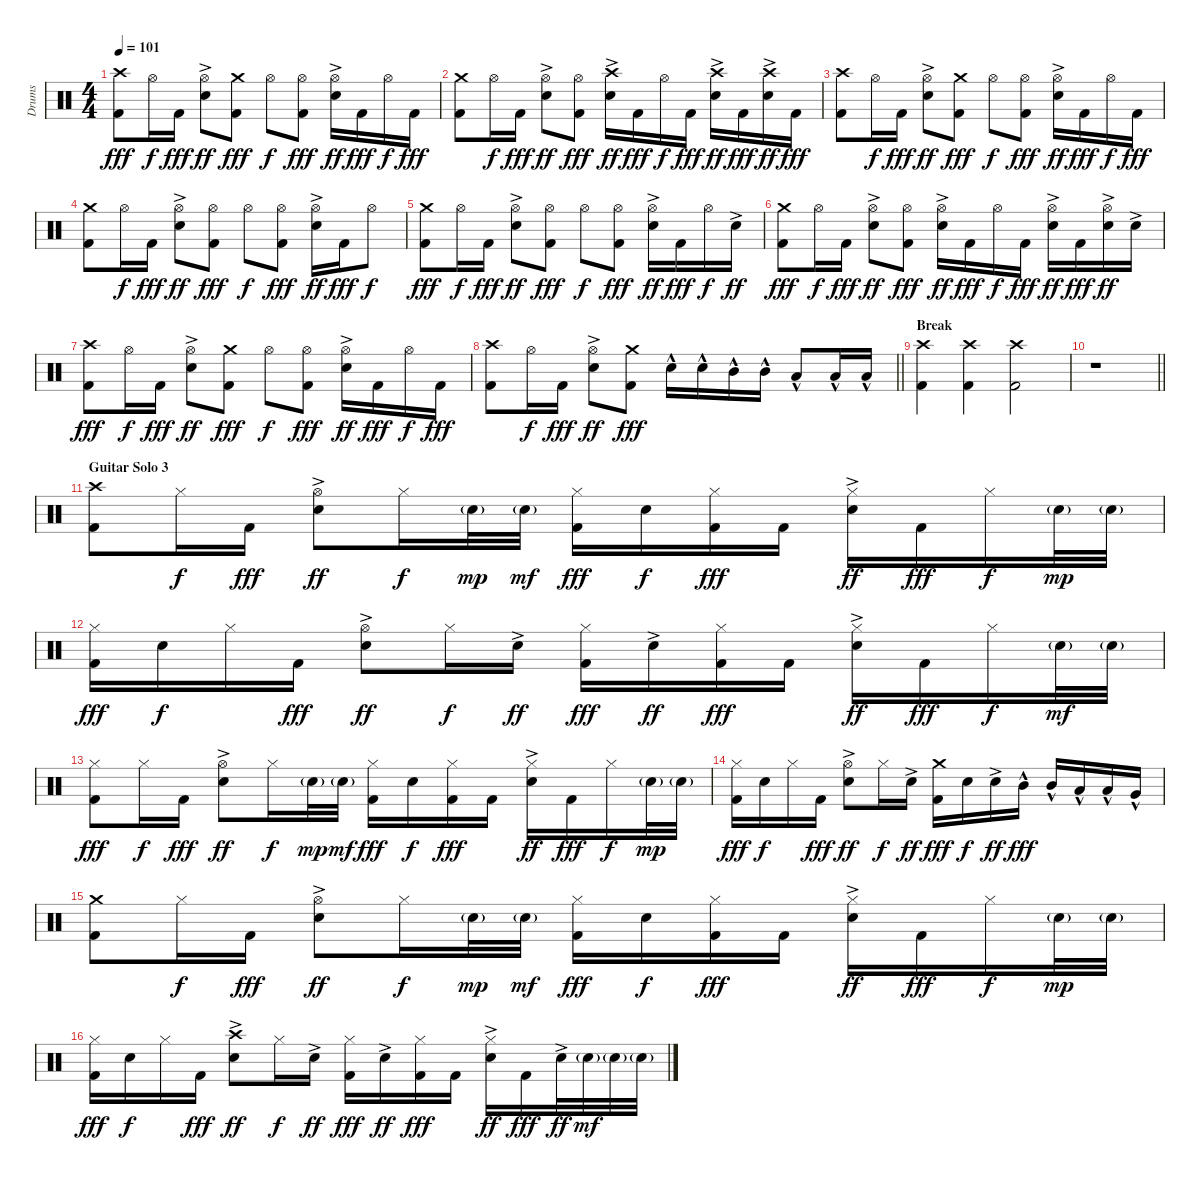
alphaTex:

\track ("Drums" "Drums") {instrument percussion}
\staff {score}
\articulation defaults
\ts (4 4)
\tempo 101
\clef neutral
\ks c
("Crash high (hit)" "Kick (hit) 2").8{dy fff} "Hi-Hat (open)".16{dy f} "Kick (hit) 2".16{dy fff} ("Hi-Hat (open)" "Snare (hit) 2"{ac}).8{dy ff} ("Crash medium (hit)" "Kick (hit) 2").8{dy fff} "Hi-Hat (open)".8{dy f} ("Hi-Hat (open)" "Kick (hit) 2").8{dy fff} ("Hi-Hat (open)" "Snare (hit) 2"{ac}).16{dy ff} "Kick (hit) 2".16{dy fff} "Hi-Hat (open)".16{dy f} "Kick (hit) 2".16{dy fff} |
("Crash medium (hit)" "Kick (hit) 2").8 "Hi-Hat (open)".16{dy f} "Kick (hit) 2".16{dy fff} ("Hi-Hat (open)" "Snare (hit) 2"{ac}).8{dy ff} ("Hi-Hat (open)" "Kick (hit) 2").8{dy fff} ("Crash high (hit)" "Snare (hit) 2"{ac}).16{dy ff} "Kick (hit) 2".16{dy fff} "Hi-Hat (open)".16{dy f} "Kick (hit) 2".16{dy fff} ("Crash high (hit)" "Snare (hit) 2"{ac}).16{dy ff} "Kick (hit) 2".16{dy fff} ("Crash high (hit)" "Snare (hit) 2"{ac}).16{dy ff} "Kick (hit) 2".16{dy fff} |
("Crash high (hit)" "Kick (hit) 2").8 "Hi-Hat (open)".16{dy f} "Kick (hit) 2".16{dy fff} ("Hi-Hat (open)" "Snare (hit) 2"{ac}).8{dy ff} ("Crash medium (hit)" "Kick (hit) 2").8{dy fff} "Hi-Hat (open)".8{dy f} ("Hi-Hat (open)" "Kick (hit) 2").8{dy fff} ("Hi-Hat (open)" "Snare (hit) 2"{ac}).16{dy ff} "Kick (hit) 2".16{dy fff} "Hi-Hat (open)".16{dy f} "Kick (hit) 2".16{dy fff} |
("Crash medium (hit)" "Kick (hit) 2").8 "Hi-Hat (open)".16{dy f} "Kick (hit) 2".16{dy fff} ("Hi-Hat (open)" "Snare (hit) 2"{ac}).8{dy ff} ("Hi-Hat (open)" "Kick (hit) 2").8{dy fff} "Hi-Hat (open)".8{dy f} ("Hi-Hat (open)" "Kick (hit) 2").8{dy fff} ("Hi-Hat (open)" "Snare (hit) 2"{ac}).16{dy ff} "Kick (hit) 2".16{dy fff} "Hi-Hat (open)".8{dy f} |
("Crash medium (hit)" "Kick (hit) 2").8{dy fff} "Hi-Hat (open)".16{dy f} "Kick (hit) 2".16{dy fff} ("Hi-Hat (open)" "Snare (hit) 2"{ac}).8{dy ff} ("Hi-Hat (open)" "Kick (hit) 2").8{dy fff} "Hi-Hat (open)".8{dy f} ("Hi-Hat (open)" "Kick (hit) 2").8{dy fff} ("Hi-Hat (open)" "Snare (hit) 2"{ac}).16{dy ff} "Kick (hit) 2".16{dy fff} "Hi-Hat (open)".16{dy f} "Snare (hit) 2"{ac}.16{dy ff} |
("Crash medium (hit)" "Kick (hit) 2").8{dy fff} "Hi-Hat (open)".16{dy f} "Kick (hit) 2".16{dy fff} ("Hi-Hat (open)" "Snare (hit) 2"{ac}).8{dy ff} ("Hi-Hat (open)" "Kick (hit) 2").8{dy fff} ("Hi-Hat (open)" "Snare (hit) 2"{ac}).16{dy ff} "Kick (hit) 2".16{dy fff} "Hi-Hat (open)".16{dy f} "Kick (hit) 2".16{dy fff} ("Hi-Hat (open)" "Snare (hit) 2"{ac}).16{dy ff} "Kick (hit) 2".16{dy fff} ("Hi-Hat (open)" "Snare (hit) 2"{ac}).16{dy ff} "Snare (hit) 2"{ac}.16 |
("Crash high (hit)" "Kick (hit) 2").8{dy fff} "Hi-Hat (open)".16{dy f} "Kick (hit) 2".16{dy fff} ("Hi-Hat (open)" "Snare (hit) 2"{ac}).8{dy ff} ("Crash medium (hit)" "Kick (hit) 2").8{dy fff} "Hi-Hat (open)".8{dy f} ("Hi-Hat (open)" "Kick (hit) 2").8{dy fff} ("Hi-Hat (open)" "Snare (hit) 2"{ac}).16{dy ff} "Kick (hit) 2".16{dy fff} "Hi-Hat (open)".16{dy f} "Kick (hit) 2".16{dy fff} |
\barLineRight lightlight
("Crash high (hit)" "Kick (hit) 2").8 "Hi-Hat (open)".16{dy f} "Kick (hit) 2".16{dy fff} ("Hi-Hat (open)" "Snare (hit) 2"{ac}).8{dy ff} ("Crash medium (hit)" "Kick (hit) 2").8{dy fff} "Snare (hit) 2"{hac}.16 "Snare (hit) 2"{hac}.16 "Mid Tom (hit)"{hac}.16 "Mid Tom (hit)"{hac}.16 "Low Tom (hit)"{hac}.8 "Low Tom (hit)"{hac}.16 "Low Tom (hit)"{hac}.16 |
\section ("" "Break")
("Crash high (hit)" "Kick (hit) 2").4 ("Crash high (hit)" "Kick (hit) 2").4 ("Crash high (hit)" "Kick (hit) 2").2 |
\barLineRight lightlight
r.1 |
\section ("" "Guitar Solo 3")
("Crash high (hit)" "Kick (hit) 2").8 "Hi-Hat (closed)".16{dy f} "Kick (hit) 2".16{dy fff} ("Hi-Hat (open)" "Snare (hit) 2"{ac}).8{dy ff} "Hi-Hat (closed)".16{dy f} "Snare (hit) 2"{g}.32{dy mp} "Snare (hit) 2"{g}.32{dy mf} ("Hi-Hat (closed)" "Kick (hit) 2").16{dy fff} "Snare (hit) 2".16{dy f} ("Hi-Hat (closed)" "Kick (hit) 2").16{dy fff} "Kick (hit) 2".16 ("Hi-Hat (closed)" "Snare (hit) 2"{ac}).16{dy ff} "Kick (hit) 2".16{dy fff} "Hi-Hat (closed)".16{dy f} "Snare (hit) 2"{g}.32{dy mp} "Snare (hit) 2"{g}.32 |
("Hi-Hat (closed)" "Kick (hit) 2").16{dy fff} "Snare (hit) 2".16{dy f} "Hi-Hat (closed)".16 "Kick (hit) 2".16{dy fff} ("Hi-Hat (open)" "Snare (hit) 2"{ac}).8{dy ff} "Hi-Hat (closed)".16{dy f} "Snare (hit) 2"{ac}.16{dy ff} ("Hi-Hat (closed)" "Kick (hit) 2").16{dy fff} "Snare (hit) 2"{ac}.16{dy ff} ("Hi-Hat (closed)" "Kick (hit) 2").16{dy fff} "Kick (hit) 2".16 ("Hi-Hat (closed)" "Snare (hit) 2"{ac}).16{dy ff} "Kick (hit) 2".16{dy fff} "Hi-Hat (closed)".16{dy f} "Snare (hit) 2"{g}.32{dy mf} "Snare (hit) 2"{g}.32 |
("Hi-Hat (closed)" "Kick (hit) 2").8{dy fff} "Hi-Hat (closed)".16{dy f} "Kick (hit) 2".16{dy fff} ("Hi-Hat (open)" "Snare (hit) 2"{ac}).8{dy ff} "Hi-Hat (closed)".16{dy f} "Snare (hit) 2"{g}.32{dy mp} "Snare (hit) 2"{g}.32{dy mf} ("Hi-Hat (closed)" "Kick (hit) 2").16{dy fff} "Snare (hit) 2".16{dy f} ("Hi-Hat (closed)" "Kick (hit) 2").16{dy fff} "Kick (hit) 2".16 ("Hi-Hat (closed)" "Snare (hit) 2"{ac}).16{dy ff} "Kick (hit) 2".16{dy fff} "Hi-Hat (closed)".16{dy f} "Snare (hit) 2"{g}.32{dy mp} "Snare (hit) 2"{g}.32 |
("Hi-Hat (closed)" "Kick (hit) 2").16{dy fff} "Snare (hit) 2".16{dy f} "Hi-Hat (closed)".16 "Kick (hit) 2".16{dy fff} ("Hi-Hat (open)" "Snare (hit) 2"{ac}).8{dy ff} "Hi-Hat (closed)".16{dy f} "Snare (hit) 2"{ac}.16{dy ff} ("Crash medium (hit)" "Kick (hit) 2").16{dy fff} "Snare (hit) 2".16{dy f} "Snare (hit) 2"{ac}.16{dy ff} "Mid Tom (hit)"{hac}.16{dy fff} "Mid Tom (hit)"{hac}.16 "Low Tom (hit)"{hac}.16 "Low Tom (hit)"{hac}.16 "Very Low Tom (hit)"{hac}.16 |
("Crash medium (hit)" "Kick (hit) 2").8 "Hi-Hat (closed)".16{dy f} "Kick (hit) 2".16{dy fff} ("Hi-Hat (open)" "Snare (hit) 2"{ac}).8{dy ff} "Hi-Hat (closed)".16{dy f} "Snare (hit) 2"{g}.32{dy mp} "Snare (hit) 2"{g}.32{dy mf} ("Hi-Hat (closed)" "Kick (hit) 2").16{dy fff} "Snare (hit) 2".16{dy f} ("Hi-Hat (closed)" "Kick (hit) 2").16{dy fff} "Kick (hit) 2".16 ("Hi-Hat (closed)" "Snare (hit) 2"{ac}).16{dy ff} "Kick (hit) 2".16{dy fff} "Hi-Hat (closed)".16{dy f} "Snare (hit) 2"{g}.32{dy mp} "Snare (hit) 2"{g}.32 |
("Hi-Hat (closed)" "Kick (hit) 2").16{dy fff} "Snare (hit) 2".16{dy f} "Hi-Hat (closed)".16 "Kick (hit) 2".16{dy fff} ("Crash high (hit)" "Snare (hit) 2"{ac}).8{dy ff} "Hi-Hat (closed)".16{dy f} "Snare (hit) 2"{ac}.16{dy ff} ("Hi-Hat (closed)" "Kick (hit) 2").16{dy fff} "Snare (hit) 2"{ac}.16{dy ff} ("Hi-Hat (closed)" "Kick (hit) 2").16{dy fff} "Kick (hit) 2".16 ("Hi-Hat (closed)" "Snare (hit) 2"{ac}).16{dy ff} "Kick (hit) 2".16{dy fff} "Snare (hit) 2"{ac}.32{dy ff} "Snare (hit) 2"{g}.32{dy mf} "Snare (hit) 2"{g}.32 "Snare (hit) 2"{g}.32
